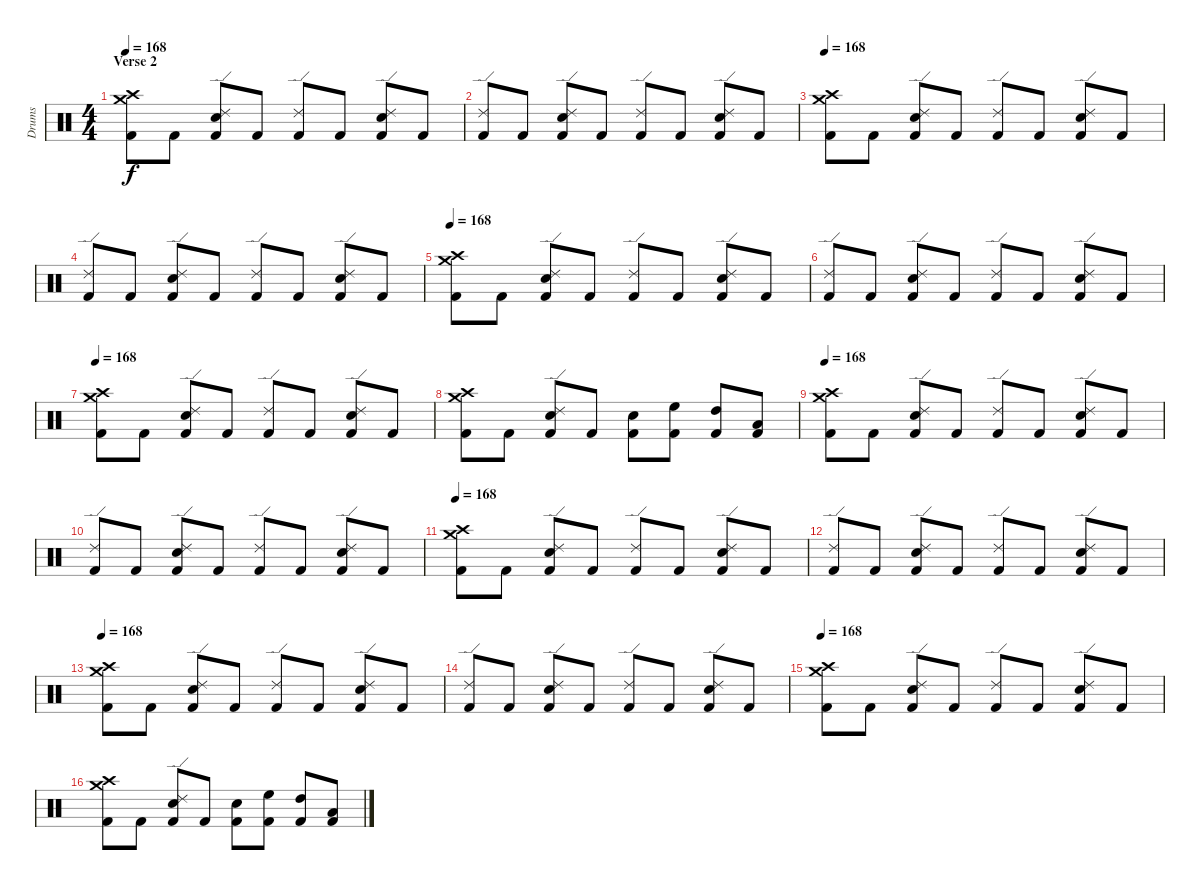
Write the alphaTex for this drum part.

\track ("Drums" "Drums") {instrument percussion}
\staff {score}
\articulation defaults
\ts (4 4)
\section ("" "Verse 2")
\tempo 168
\clef neutral
\ks c
("Crash medium (hit)" "Crash high (hit)" "Kick (hit) 2").8{dy f} "Kick (hit) 2".8 ("Ride (edge) 2" "Snare (hit) 2" "Kick (hit) 2").8 "Kick (hit) 2".8 ("Ride (edge) 2" "Kick (hit) 2").8 "Kick (hit) 2".8 ("Ride (edge) 2" "Snare (hit) 2" "Kick (hit) 2").8 "Kick (hit) 2".8 |
("Ride (edge) 2" "Kick (hit) 2").8 "Kick (hit) 2".8 ("Ride (edge) 2" "Snare (hit) 2" "Kick (hit) 2").8 "Kick (hit) 2".8 ("Ride (edge) 2" "Kick (hit) 2").8 "Kick (hit) 2".8 ("Ride (edge) 2" "Snare (hit) 2" "Kick (hit) 2").8 "Kick (hit) 2".8 |
\tempo 168
("Crash medium (hit)" "Crash high (hit)" "Kick (hit) 2").8 "Kick (hit) 2".8 ("Ride (edge) 2" "Snare (hit) 2" "Kick (hit) 2").8 "Kick (hit) 2".8 ("Ride (edge) 2" "Kick (hit) 2").8 "Kick (hit) 2".8 ("Ride (edge) 2" "Snare (hit) 2" "Kick (hit) 2").8 "Kick (hit) 2".8 |
("Ride (edge) 2" "Kick (hit) 2").8 "Kick (hit) 2".8 ("Ride (edge) 2" "Snare (hit) 2" "Kick (hit) 2").8 "Kick (hit) 2".8 ("Ride (edge) 2" "Kick (hit) 2").8 "Kick (hit) 2".8 ("Ride (edge) 2" "Snare (hit) 2" "Kick (hit) 2").8 "Kick (hit) 2".8 |
\tempo 168
("Crash medium (hit)" "Crash high (hit)" "Kick (hit) 2").8 "Kick (hit) 2".8 ("Ride (edge) 2" "Snare (hit) 2" "Kick (hit) 2").8 "Kick (hit) 2".8 ("Ride (edge) 2" "Kick (hit) 2").8 "Kick (hit) 2".8 ("Ride (edge) 2" "Snare (hit) 2" "Kick (hit) 2").8 "Kick (hit) 2".8 |
("Ride (edge) 2" "Kick (hit) 2").8 "Kick (hit) 2".8 ("Ride (edge) 2" "Snare (hit) 2" "Kick (hit) 2").8 "Kick (hit) 2".8 ("Ride (edge) 2" "Kick (hit) 2").8 "Kick (hit) 2".8 ("Ride (edge) 2" "Snare (hit) 2" "Kick (hit) 2").8 "Kick (hit) 2".8 |
\tempo 168
("Crash medium (hit)" "Crash high (hit)" "Kick (hit) 2").8 "Kick (hit) 2".8 ("Ride (edge) 2" "Snare (hit) 2" "Kick (hit) 2").8 "Kick (hit) 2".8 ("Ride (edge) 2" "Kick (hit) 2").8 "Kick (hit) 2".8 ("Ride (edge) 2" "Snare (hit) 2" "Kick (hit) 2").8 "Kick (hit) 2".8 |
("Crash medium (hit)" "Crash high (hit)" "Kick (hit) 2").8 "Kick (hit) 2".8 ("Ride (edge) 2" "Snare (hit) 2" "Kick (hit) 2").8 "Kick (hit) 2".8 ("Snare (hit) 2" "Kick (hit) 2").8 ("High Floor Tom (hit)" "Kick (hit) 2").8 ("High Tom (hit)" "Kick (hit) 2").8 ("Low Tom (hit)" "Kick (hit) 2").8 |
\tempo 168
("Crash medium (hit)" "Crash high (hit)" "Kick (hit) 2").8 "Kick (hit) 2".8 ("Ride (edge) 2" "Snare (hit) 2" "Kick (hit) 2").8 "Kick (hit) 2".8 ("Ride (edge) 2" "Kick (hit) 2").8 "Kick (hit) 2".8 ("Ride (edge) 2" "Snare (hit) 2" "Kick (hit) 2").8 "Kick (hit) 2".8 |
("Ride (edge) 2" "Kick (hit) 2").8 "Kick (hit) 2".8 ("Ride (edge) 2" "Snare (hit) 2" "Kick (hit) 2").8 "Kick (hit) 2".8 ("Ride (edge) 2" "Kick (hit) 2").8 "Kick (hit) 2".8 ("Ride (edge) 2" "Snare (hit) 2" "Kick (hit) 2").8 "Kick (hit) 2".8 |
\tempo 168
("Crash medium (hit)" "Crash high (hit)" "Kick (hit) 2").8 "Kick (hit) 2".8 ("Ride (edge) 2" "Snare (hit) 2" "Kick (hit) 2").8 "Kick (hit) 2".8 ("Ride (edge) 2" "Kick (hit) 2").8 "Kick (hit) 2".8 ("Ride (edge) 2" "Snare (hit) 2" "Kick (hit) 2").8 "Kick (hit) 2".8 |
("Ride (edge) 2" "Kick (hit) 2").8 "Kick (hit) 2".8 ("Ride (edge) 2" "Snare (hit) 2" "Kick (hit) 2").8 "Kick (hit) 2".8 ("Ride (edge) 2" "Kick (hit) 2").8 "Kick (hit) 2".8 ("Ride (edge) 2" "Snare (hit) 2" "Kick (hit) 2").8 "Kick (hit) 2".8 |
\tempo 168
("Crash medium (hit)" "Crash high (hit)" "Kick (hit) 2").8 "Kick (hit) 2".8 ("Ride (edge) 2" "Snare (hit) 2" "Kick (hit) 2").8 "Kick (hit) 2".8 ("Ride (edge) 2" "Kick (hit) 2").8 "Kick (hit) 2".8 ("Ride (edge) 2" "Snare (hit) 2" "Kick (hit) 2").8 "Kick (hit) 2".8 |
("Ride (edge) 2" "Kick (hit) 2").8 "Kick (hit) 2".8 ("Ride (edge) 2" "Snare (hit) 2" "Kick (hit) 2").8 "Kick (hit) 2".8 ("Ride (edge) 2" "Kick (hit) 2").8 "Kick (hit) 2".8 ("Ride (edge) 2" "Snare (hit) 2" "Kick (hit) 2").8 "Kick (hit) 2".8 |
\tempo 168
("Crash medium (hit)" "Crash high (hit)" "Kick (hit) 2").8 "Kick (hit) 2".8 ("Ride (edge) 2" "Snare (hit) 2" "Kick (hit) 2").8 "Kick (hit) 2".8 ("Ride (edge) 2" "Kick (hit) 2").8 "Kick (hit) 2".8 ("Ride (edge) 2" "Snare (hit) 2" "Kick (hit) 2").8 "Kick (hit) 2".8 |
("Crash medium (hit)" "Crash high (hit)" "Kick (hit) 2").8 "Kick (hit) 2".8 ("Ride (edge) 2" "Snare (hit) 2" "Kick (hit) 2").8 "Kick (hit) 2".8 ("Snare (hit) 2" "Kick (hit) 2").8 ("High Floor Tom (hit)" "Kick (hit) 2").8 ("High Tom (hit)" "Kick (hit) 2").8 ("Low Tom (hit)" "Kick (hit) 2").8
